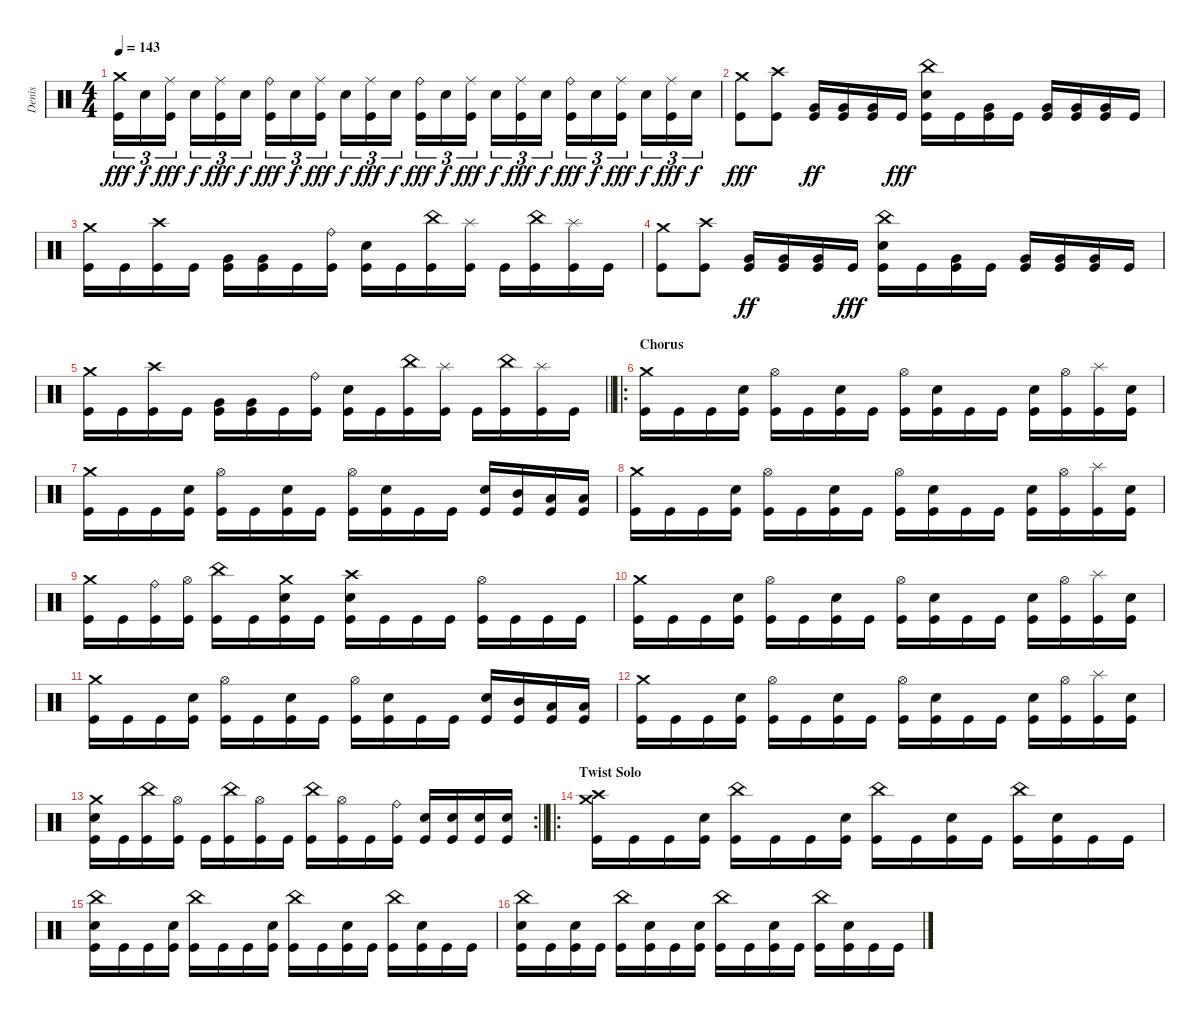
\track ("Denis" "Denis") {instrument percussion}
\staff {score}
\articulation defaults
\ts (4 4)
\tempo 143
\clef neutral
\ks c
("Crash medium (hit)" "Kick (hit)").16{tu (3 2) dy fff} "Electric Snare (hit)".16{tu (3 2) dy f} ("Kick (hit)" "Ride (middle)").16{tu (3 2) dy fff beam splitsecondary} "Electric Snare (hit)".16{tu (3 2) dy f} ("Kick (hit)" "Ride (middle)").16{tu (3 2) dy fff} "Electric Snare (hit)".16{tu (3 2) dy f} ("Kick (hit)" "Ride (bell)").16{tu (3 2) dy fff} "Electric Snare (hit)".16{tu (3 2) dy f} ("Kick (hit)" "Ride (middle)").16{tu (3 2) dy fff beam splitsecondary} "Electric Snare (hit)".16{tu (3 2) dy f} ("Kick (hit)" "Ride (middle)").16{tu (3 2) dy fff} "Electric Snare (hit)".16{tu (3 2) dy f} ("Kick (hit)" "Ride (bell)").16{tu (3 2) dy fff} "Electric Snare (hit)".16{tu (3 2) dy f} ("Kick (hit)" "Ride (middle)").16{tu (3 2) dy fff beam splitsecondary} "Electric Snare (hit)".16{tu (3 2) dy f} ("Kick (hit)" "Ride (middle)").16{tu (3 2) dy fff} "Electric Snare (hit)".16{tu (3 2) dy f} ("Kick (hit)" "Ride (bell)").16{tu (3 2) dy fff} "Electric Snare (hit)".16{tu (3 2) dy f} ("Kick (hit)" "Ride (middle)").16{tu (3 2) dy fff beam splitsecondary} "Electric Snare (hit)".16{tu (3 2) dy f} ("Kick (hit)" "Ride (middle)").16{tu (3 2) dy fff} "Electric Snare (hit)".16{tu (3 2) dy f} |
("Crash medium (hit)" "Kick (hit)").8{dy fff} ("Crash high (hit)" "Kick (hit)").8 ("Kick (hit)" "Very Low Tom (hit)").16{dy ff} ("Kick (hit)" "Very Low Tom (hit)").16 ("Kick (hit)" "Very Low Tom (hit)").16 "Kick (hit)".16{dy fff} ("Kick (hit)" "Electric Snare (hit)" "China (hit)").16 "Kick (hit)".16 ("Kick (hit)" "Very Low Tom (hit)").16 "Kick (hit)".16 ("Kick (hit)" "Very Low Tom (hit)").16 ("Kick (hit)" "Very Low Tom (hit)").16 ("Kick (hit)" "Very Low Tom (hit)").16 "Kick (hit)".16 |
("Kick (hit)" "Crash medium (hit)").16 "Kick (hit)".16 ("Kick (hit)" "Crash high (hit)").16 "Kick (hit)".16 ("Kick (hit)" "Very Low Tom (hit)").16 ("Kick (hit)" "Very Low Tom (hit)").16 "Kick (hit)".16 ("Kick (hit)" "Ride (bell)").16 ("Kick (hit)" "Electric Snare (hit)").16 "Kick (hit)".16 ("Kick (hit)" "China (hit)").16 ("Kick (hit)" "Splash (hit)").16 "Kick (hit)".16 ("Kick (hit)" "China (hit)").16 ("Kick (hit)" "Splash (hit)").16 "Kick (hit)".16 |
("Crash medium (hit)" "Kick (hit)").8 ("Crash high (hit)" "Kick (hit)").8 ("Kick (hit)" "Very Low Tom (hit)").16{dy ff} ("Kick (hit)" "Very Low Tom (hit)").16 ("Kick (hit)" "Very Low Tom (hit)").16 "Kick (hit)".16{dy fff} ("Kick (hit)" "Electric Snare (hit)" "China (hit)").16 "Kick (hit)".16 ("Kick (hit)" "Very Low Tom (hit)").16 "Kick (hit)".16 ("Kick (hit)" "Very Low Tom (hit)").16 ("Kick (hit)" "Very Low Tom (hit)").16 ("Kick (hit)" "Very Low Tom (hit)").16 "Kick (hit)".16 |
\barLineRight lightlight
("Kick (hit)" "Crash medium (hit)").16 "Kick (hit)".16 ("Kick (hit)" "Crash high (hit)").16 "Kick (hit)".16 ("Kick (hit)" "Very Low Tom (hit)").16 ("Kick (hit)" "Very Low Tom (hit)").16 "Kick (hit)".16 ("Kick (hit)" "Ride (bell)").16 ("Kick (hit)" "Electric Snare (hit)").16 "Kick (hit)".16 ("Kick (hit)" "China (hit)").16 ("Kick (hit)" "Splash (hit)").16 "Kick (hit)".16 ("Kick (hit)" "China (hit)").16 ("Kick (hit)" "Splash (hit)").16 "Kick (hit)".16 |
\ro
\section ("" "Chorus")
("Crash medium (hit)" "Kick (hit)").16 "Kick (hit)".16 "Kick (hit)".16 ("Kick (hit)" "Electric Snare (hit)").16 ("Kick (hit)" "Hi-Hat (open)").16 "Kick (hit)".16 ("Kick (hit)" "Electric Snare (hit)").16 "Kick (hit)".16 ("Kick (hit)" "Hi-Hat (open)").16 ("Kick (hit)" "Electric Snare (hit)").16 "Kick (hit)".16 "Kick (hit)".16 ("Kick (hit)" "Electric Snare (hit)").16 ("Kick (hit)" "Hi-Hat (open)").16 ("Kick (hit)" "Splash (hit)").16 ("Kick (hit)" "Electric Snare (hit)").16 |
("Crash medium (hit)" "Kick (hit)").16 "Kick (hit)".16 "Kick (hit)".16 ("Kick (hit)" "Electric Snare (hit)").16 ("Kick (hit)" "Hi-Hat (open)").16 "Kick (hit)".16 ("Kick (hit)" "Electric Snare (hit)").16 "Kick (hit)".16 ("Kick (hit)" "Hi-Hat (open)").16 ("Kick (hit)" "Electric Snare (hit)").16 "Kick (hit)".16 "Kick (hit)".16 ("Kick (hit)" "Electric Snare (hit)").16 ("Kick (hit)" "Mid Tom (hit)").16 ("Kick (hit)" "Low Tom (hit)").16 ("Kick (hit)" "Low Tom (hit)").16 |
("Crash medium (hit)" "Kick (hit)").16 "Kick (hit)".16 "Kick (hit)".16 ("Kick (hit)" "Electric Snare (hit)").16 ("Kick (hit)" "Hi-Hat (open)").16 "Kick (hit)".16 ("Kick (hit)" "Electric Snare (hit)").16 "Kick (hit)".16 ("Kick (hit)" "Hi-Hat (open)").16 ("Kick (hit)" "Electric Snare (hit)").16 "Kick (hit)".16 "Kick (hit)".16 ("Kick (hit)" "Electric Snare (hit)").16 ("Kick (hit)" "Hi-Hat (open)").16 ("Kick (hit)" "Splash (hit)").16 ("Kick (hit)" "Electric Snare (hit)").16 |
("Crash medium (hit)" "Kick (hit)").16 "Kick (hit)".16 ("Kick (hit)" "Ride (bell)").16 ("Kick (hit)" "Hi-Hat (open)").16 ("Kick (hit)" "China (hit)").16 "Kick (hit)".16 ("Kick (hit)" "Electric Snare (hit)" "Crash medium (hit)").16 "Kick (hit)".16 ("Kick (hit)" "Crash high (hit)" "Electric Snare (hit)").16 "Kick (hit)".16 "Kick (hit)".16 "Kick (hit)".16 ("Kick (hit)" "Hi-Hat (open)").16 "Kick (hit)".16 "Kick (hit)".16 "Kick (hit)".16 |
("Crash medium (hit)" "Kick (hit)").16 "Kick (hit)".16 "Kick (hit)".16 ("Kick (hit)" "Electric Snare (hit)").16 ("Kick (hit)" "Hi-Hat (open)").16 "Kick (hit)".16 ("Kick (hit)" "Electric Snare (hit)").16 "Kick (hit)".16 ("Kick (hit)" "Hi-Hat (open)").16 ("Kick (hit)" "Electric Snare (hit)").16 "Kick (hit)".16 "Kick (hit)".16 ("Kick (hit)" "Electric Snare (hit)").16 ("Kick (hit)" "Hi-Hat (open)").16 ("Kick (hit)" "Splash (hit)").16 ("Kick (hit)" "Electric Snare (hit)").16 |
("Crash medium (hit)" "Kick (hit)").16 "Kick (hit)".16 "Kick (hit)".16 ("Kick (hit)" "Electric Snare (hit)").16 ("Kick (hit)" "Hi-Hat (open)").16 "Kick (hit)".16 ("Kick (hit)" "Electric Snare (hit)").16 "Kick (hit)".16 ("Kick (hit)" "Hi-Hat (open)").16 ("Kick (hit)" "Electric Snare (hit)").16 "Kick (hit)".16 "Kick (hit)".16 ("Kick (hit)" "Electric Snare (hit)").16 ("Kick (hit)" "Mid Tom (hit)").16 ("Kick (hit)" "Low Tom (hit)").16 ("Kick (hit)" "Low Tom (hit)").16 |
("Crash medium (hit)" "Kick (hit)").16 "Kick (hit)".16 "Kick (hit)".16 ("Kick (hit)" "Electric Snare (hit)").16 ("Kick (hit)" "Hi-Hat (open)").16 "Kick (hit)".16 ("Kick (hit)" "Electric Snare (hit)").16 "Kick (hit)".16 ("Kick (hit)" "Hi-Hat (open)").16 ("Kick (hit)" "Electric Snare (hit)").16 "Kick (hit)".16 "Kick (hit)".16 ("Kick (hit)" "Electric Snare (hit)").16 ("Kick (hit)" "Hi-Hat (open)").16 ("Kick (hit)" "Splash (hit)").16 ("Kick (hit)" "Electric Snare (hit)").16 |
\rc 2
\barLineRight lightlight
("Crash medium (hit)" "Kick (hit)" "Electric Snare (hit)").16 "Kick (hit)".16 ("Kick (hit)" "China (hit)").16 ("Kick (hit)" "Hi-Hat (open)").16 "Kick (hit)".16 ("Kick (hit)" "China (hit)").16 ("Kick (hit)" "Hi-Hat (open)").16 "Kick (hit)".16 ("Kick (hit)" "China (hit)").16 ("Kick (hit)" "Hi-Hat (open)").16 "Kick (hit)".16 ("Kick (hit)" "Ride (bell)").16 ("Kick (hit)" "Electric Snare (hit)").16 ("Kick (hit)" "Electric Snare (hit)").16 ("Kick (hit)" "Electric Snare (hit)").16 ("Kick (hit)" "Electric Snare (hit)").16 |
\ro
\section ("" "Twist Solo")
("Kick (hit)" "Crash medium (hit)" "Crash high (hit)").16 "Kick (hit)".16 "Kick (hit)".16 ("Kick (hit)" "Electric Snare (hit)").16 ("Kick (hit)" "China (hit)").16 "Kick (hit)".16 "Kick (hit)".16 ("Kick (hit)" "Electric Snare (hit)").16 ("Kick (hit)" "China (hit)").16 "Kick (hit)".16 ("Kick (hit)" "Electric Snare (hit)").16 "Kick (hit)".16 ("Kick (hit)" "China (hit)").16 ("Kick (hit)" "Electric Snare (hit)").16 "Kick (hit)".16 "Kick (hit)".16 |
("Kick (hit)" "China (hit)" "Electric Snare (hit)").16 "Kick (hit)".16 "Kick (hit)".16 ("Kick (hit)" "Electric Snare (hit)").16 ("Kick (hit)" "China (hit)").16 "Kick (hit)".16 "Kick (hit)".16 ("Kick (hit)" "Electric Snare (hit)").16 ("Kick (hit)" "China (hit)").16 "Kick (hit)".16 ("Kick (hit)" "Electric Snare (hit)").16 "Kick (hit)".16 ("Kick (hit)" "China (hit)").16 ("Kick (hit)" "Electric Snare (hit)").16 "Kick (hit)".16 "Kick (hit)".16 |
("Kick (hit)" "China (hit)" "Electric Snare (hit)").16 "Kick (hit)".16 ("Kick (hit)" "Electric Snare (hit)").16 "Kick (hit)".16 ("Kick (hit)" "China (hit)").16 ("Kick (hit)" "Electric Snare (hit)").16 "Kick (hit)".16 ("Kick (hit)" "Electric Snare (hit)").16 ("Kick (hit)" "China (hit)").16 "Kick (hit)".16 ("Kick (hit)" "Electric Snare (hit)").16 "Kick (hit)".16 ("Kick (hit)" "China (hit)").16 ("Kick (hit)" "Electric Snare (hit)").16 "Kick (hit)".16 "Kick (hit)".16
